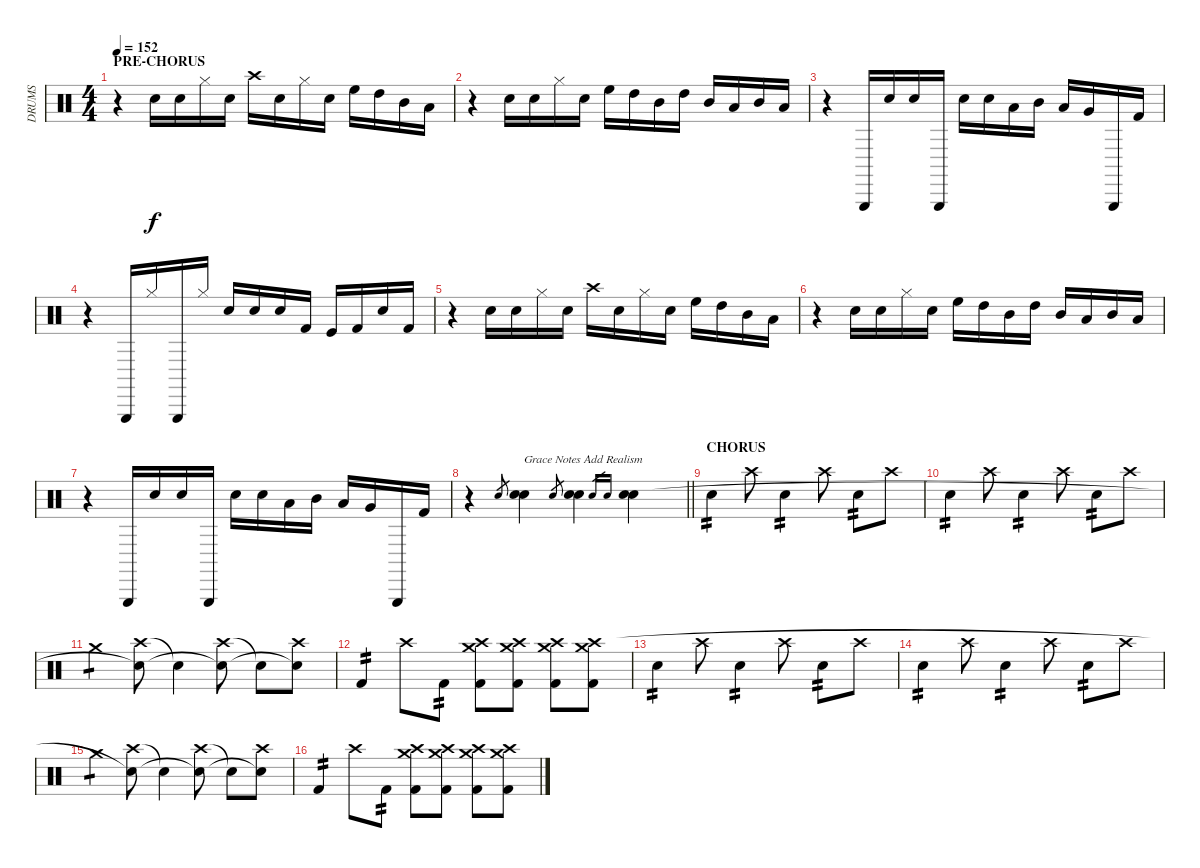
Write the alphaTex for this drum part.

\track ("DRUMS" "DRUMS") {instrument percussion}
\staff {score}
\articulation defaults
\ts (4 4)
\section ("" "PRE-CHORUS")
\tempo 152
\clef neutral
\ks c
r.4{dy f} "Electric Snare (hit)".16 "Electric Snare (hit)".16 "Hi-Hat (closed)".16 "Electric Snare (hit)".16 "Crash high (hit)".16 "Electric Snare (hit)".16 "Hi-Hat (closed)".16 "Electric Snare (hit)".16 "High Floor Tom (hit)".16 "High Tom (hit)".16 "Mid Tom (hit)".16 "Low Tom (hit)".16 |
r.4 "Electric Snare (hit)".16 "Electric Snare (hit)".16 "Hi-Hat (closed)".16 "Electric Snare (hit)".16 "High Floor Tom (hit)".16 "High Tom (hit)".16 "Mid Tom (hit)".16 "High Tom (hit)".16 "Mid Tom (hit)".16 "Low Tom (hit)".16 "Mid Tom (hit)".16 "Low Tom (hit)".16 |
r.4 "Triangle (hit)".16 "Electric Snare (hit)".16 "Snare (hit) 2".16 "Triangle (hit)".16 "Electric Snare (hit)".16 "Snare (hit) 2".16 "Low Tom (hit)".16 "Mid Tom (hit)".16 "Low Tom (hit)".16 "Very Low Tom (hit)".16 "Triangle (hit)".16 "Kick (hit) 2".16 |
r.4 "Triangle (hit)".16 "Hi-Hat (closed)".16 "Triangle (hit)".16 "Hi-Hat (closed)".16 "Snare (hit) 2".16 "Electric Snare (hit)".16 "Snare (hit) 2".16 "Kick (hit) 2".16 "Kick (hit)".16 "Kick (hit) 2".16 "Snare (hit) 2".16 "Kick (hit) 2".16 |
r.4 "Electric Snare (hit)".16 "Electric Snare (hit)".16 "Hi-Hat (closed)".16 "Electric Snare (hit)".16 "Crash high (hit)".16 "Electric Snare (hit)".16 "Hi-Hat (closed)".16 "Electric Snare (hit)".16 "High Floor Tom (hit)".16 "High Tom (hit)".16 "Mid Tom (hit)".16 "Low Tom (hit)".16 |
r.4 "Electric Snare (hit)".16 "Electric Snare (hit)".16 "Hi-Hat (closed)".16 "Electric Snare (hit)".16 "High Floor Tom (hit)".16 "High Tom (hit)".16 "Mid Tom (hit)".16 "High Tom (hit)".16 "Mid Tom (hit)".16 "Low Tom (hit)".16 "Mid Tom (hit)".16 "Low Tom (hit)".16 |
r.4 "Triangle (hit)".16 "Electric Snare (hit)".16 "Snare (hit) 2".16 "Triangle (hit)".16 "Electric Snare (hit)".16 "Snare (hit) 2".16 "Low Tom (hit)".16 "Mid Tom (hit)".16 "Low Tom (hit)".16 "Very Low Tom (hit)".16 "Triangle (hit)".16 "Kick (hit) 2".16 |
\barLineRight lightlight
r.4 "Snare (hit) 2".8{gr} ("Snare (hit) 2" "Electric Snare (hit)").4{txt "Grace Notes Add Realism"} "Electric Snare (hit)".8{gr} ("Snare (hit) 2" "Electric Snare (hit)").4 "Snare (hit) 2".16{gr} "Snare (hit) 2".16{gr} ("Snare (hit) 2" "Electric Snare (hit)").4 |
\section ("" "CHORUS")
"Electric Snare (hit)".4{tp 2} "Crash high (hit)".8 "Electric Snare (hit)".4{tp 2} "Crash high (hit)".8 "Electric Snare (hit)".8{tp 2} "Crash high (hit)".8 |
"Electric Snare (hit)".4{tp 2} "Crash high (hit)".8 "Electric Snare (hit)".4{tp 2} "Crash high (hit)".8 "Electric Snare (hit)".8{tp 2} "Crash high (hit)".8 |
"Crash medium (hit)".4{tp 1} ("Crash high (hit)" "Snare (hit)"{t}).8 "Electric Snare (hit)"{t}.4 ("Crash high (hit)" "Snare (hit)"{t}).8 "Electric Snare (hit)"{t}.8 ("Crash high (hit)" "Snare (hit)"{t}).8 |
"Kick (hit) 2".4{tp 2} "Crash high (hit)".8 "Kick (hit) 2".8{tp 2} ("Kick (hit) 2" "Crash high (hit)" "Crash medium (hit)").8 ("Kick (hit) 2" "Crash high (hit)" "Crash medium (hit)").8 ("Kick (hit) 2" "Crash high (hit)" "Crash medium (hit)").8 ("Kick (hit) 2" "Crash high (hit)" "Crash medium (hit)").8 |
"Electric Snare (hit)".4{tp 2} "Crash high (hit)".8 "Electric Snare (hit)".4{tp 2} "Crash high (hit)".8 "Electric Snare (hit)".8{tp 2} "Crash high (hit)".8 |
"Electric Snare (hit)".4{tp 2} "Crash high (hit)".8 "Electric Snare (hit)".4{tp 2} "Crash high (hit)".8 "Electric Snare (hit)".8{tp 2} "Crash high (hit)".8 |
"Crash medium (hit)".4{tp 1} ("Crash high (hit)" "Snare (hit)"{t}).8 "Electric Snare (hit)"{t}.4 ("Crash high (hit)" "Snare (hit)"{t}).8 "Electric Snare (hit)"{t}.8 ("Crash high (hit)" "Snare (hit)"{t}).8 |
"Kick (hit) 2".4{tp 2} "Crash high (hit)".8 "Kick (hit) 2".8{tp 2} ("Kick (hit) 2" "Crash high (hit)" "Crash medium (hit)").8 ("Kick (hit) 2" "Crash high (hit)" "Crash medium (hit)").8 ("Kick (hit) 2" "Crash high (hit)" "Crash medium (hit)").8 ("Kick (hit) 2" "Crash high (hit)" "Crash medium (hit)").8
